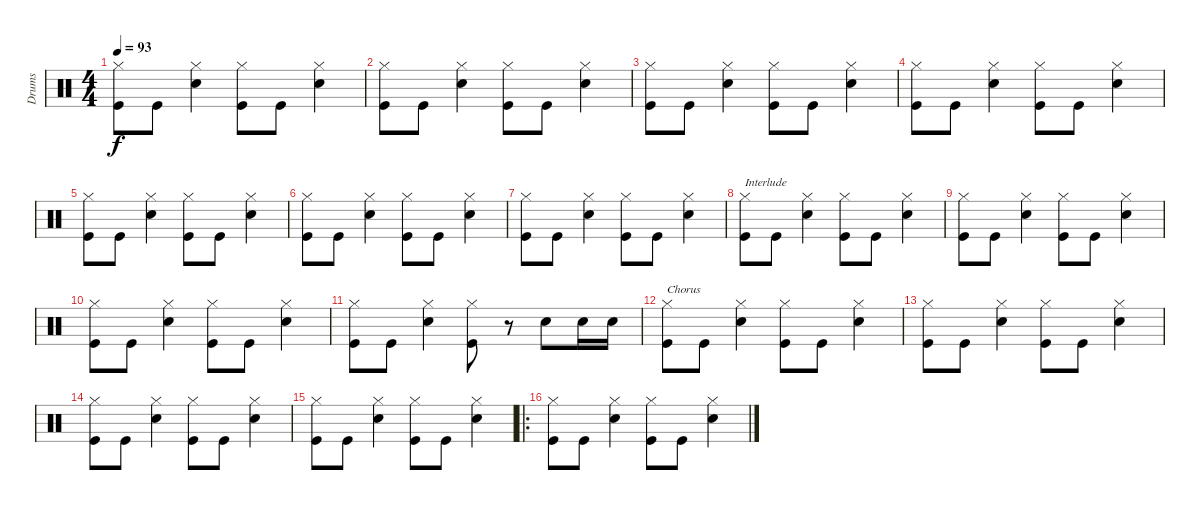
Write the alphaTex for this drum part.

\track ("Drums" "Drums") {instrument percussion}
\staff {score}
\articulation defaults
\ts (4 4)
\tempo 93
\clef neutral
\ks c
("Hi-Hat (closed)" "Kick (hit)").8{dy f} "Kick (hit)".8 ("Hi-Hat (closed)" "Snare (hit) 2").4 ("Hi-Hat (closed)" "Kick (hit)").8 "Kick (hit)".8 ("Hi-Hat (closed)" "Snare (hit) 2").4 |
("Hi-Hat (closed)" "Kick (hit)").8 "Kick (hit)".8 ("Hi-Hat (closed)" "Snare (hit) 2").4 ("Hi-Hat (closed)" "Kick (hit)").8 "Kick (hit)".8 ("Hi-Hat (closed)" "Snare (hit) 2").4 |
("Hi-Hat (closed)" "Kick (hit)").8 "Kick (hit)".8 ("Hi-Hat (closed)" "Snare (hit) 2").4 ("Hi-Hat (closed)" "Kick (hit)").8 "Kick (hit)".8 ("Hi-Hat (closed)" "Snare (hit) 2").4 |
("Hi-Hat (closed)" "Kick (hit)").8 "Kick (hit)".8 ("Hi-Hat (closed)" "Snare (hit) 2").4 ("Hi-Hat (closed)" "Kick (hit)").8 "Kick (hit)".8 ("Hi-Hat (closed)" "Snare (hit) 2").4 |
("Hi-Hat (closed)" "Kick (hit)").8 "Kick (hit)".8 ("Hi-Hat (closed)" "Snare (hit) 2").4 ("Hi-Hat (closed)" "Kick (hit)").8 "Kick (hit)".8 ("Hi-Hat (closed)" "Snare (hit) 2").4 |
("Hi-Hat (closed)" "Kick (hit)").8 "Kick (hit)".8 ("Hi-Hat (closed)" "Snare (hit) 2").4 ("Hi-Hat (closed)" "Kick (hit)").8 "Kick (hit)".8 ("Hi-Hat (closed)" "Snare (hit) 2").4 |
("Hi-Hat (closed)" "Kick (hit)").8 "Kick (hit)".8 ("Hi-Hat (closed)" "Snare (hit) 2").4 ("Hi-Hat (closed)" "Kick (hit)").8 "Kick (hit)".8 ("Hi-Hat (closed)" "Snare (hit) 2").4 |
("Hi-Hat (closed)" "Kick (hit)").8{txt "Interlude"} "Kick (hit)".8 ("Hi-Hat (closed)" "Snare (hit) 2").4 ("Hi-Hat (closed)" "Kick (hit)").8 "Kick (hit)".8 ("Hi-Hat (closed)" "Snare (hit) 2").4 |
("Hi-Hat (closed)" "Kick (hit)").8 "Kick (hit)".8 ("Hi-Hat (closed)" "Snare (hit) 2").4 ("Hi-Hat (closed)" "Kick (hit)").8 "Kick (hit)".8 ("Hi-Hat (closed)" "Snare (hit) 2").4 |
("Hi-Hat (closed)" "Kick (hit)").8 "Kick (hit)".8 ("Hi-Hat (closed)" "Snare (hit) 2").4 ("Hi-Hat (closed)" "Kick (hit)").8 "Kick (hit)".8 ("Hi-Hat (closed)" "Snare (hit) 2").4 |
("Hi-Hat (closed)" "Kick (hit)").8 "Kick (hit)".8 ("Hi-Hat (closed)" "Snare (hit) 2").4 ("Hi-Hat (closed)" "Kick (hit)").8 r.8 "Snare (hit) 2".8 "Snare (hit) 2".16 "Snare (hit) 2".16 |
("Hi-Hat (closed)" "Kick (hit)").8{txt "Chorus"} "Kick (hit)".8 ("Hi-Hat (closed)" "Snare (hit) 2").4 ("Hi-Hat (closed)" "Kick (hit)").8 "Kick (hit)".8 ("Hi-Hat (closed)" "Snare (hit) 2").4 |
("Hi-Hat (closed)" "Kick (hit)").8 "Kick (hit)".8 ("Hi-Hat (closed)" "Snare (hit) 2").4 ("Hi-Hat (closed)" "Kick (hit)").8 "Kick (hit)".8 ("Hi-Hat (closed)" "Snare (hit) 2").4 |
("Hi-Hat (closed)" "Kick (hit)").8 "Kick (hit)".8 ("Hi-Hat (closed)" "Snare (hit) 2").4 ("Hi-Hat (closed)" "Kick (hit)").8 "Kick (hit)".8 ("Hi-Hat (closed)" "Snare (hit) 2").4 |
("Hi-Hat (closed)" "Kick (hit)").8 "Kick (hit)".8 ("Hi-Hat (closed)" "Snare (hit) 2").4 ("Hi-Hat (closed)" "Kick (hit)").8 "Kick (hit)".8 ("Hi-Hat (closed)" "Snare (hit) 2").4 |
\ro
("Hi-Hat (closed)" "Kick (hit)").8 "Kick (hit)".8 ("Hi-Hat (closed)" "Snare (hit) 2").4 ("Hi-Hat (closed)" "Kick (hit)").8 "Kick (hit)".8 ("Hi-Hat (closed)" "Snare (hit) 2").4
